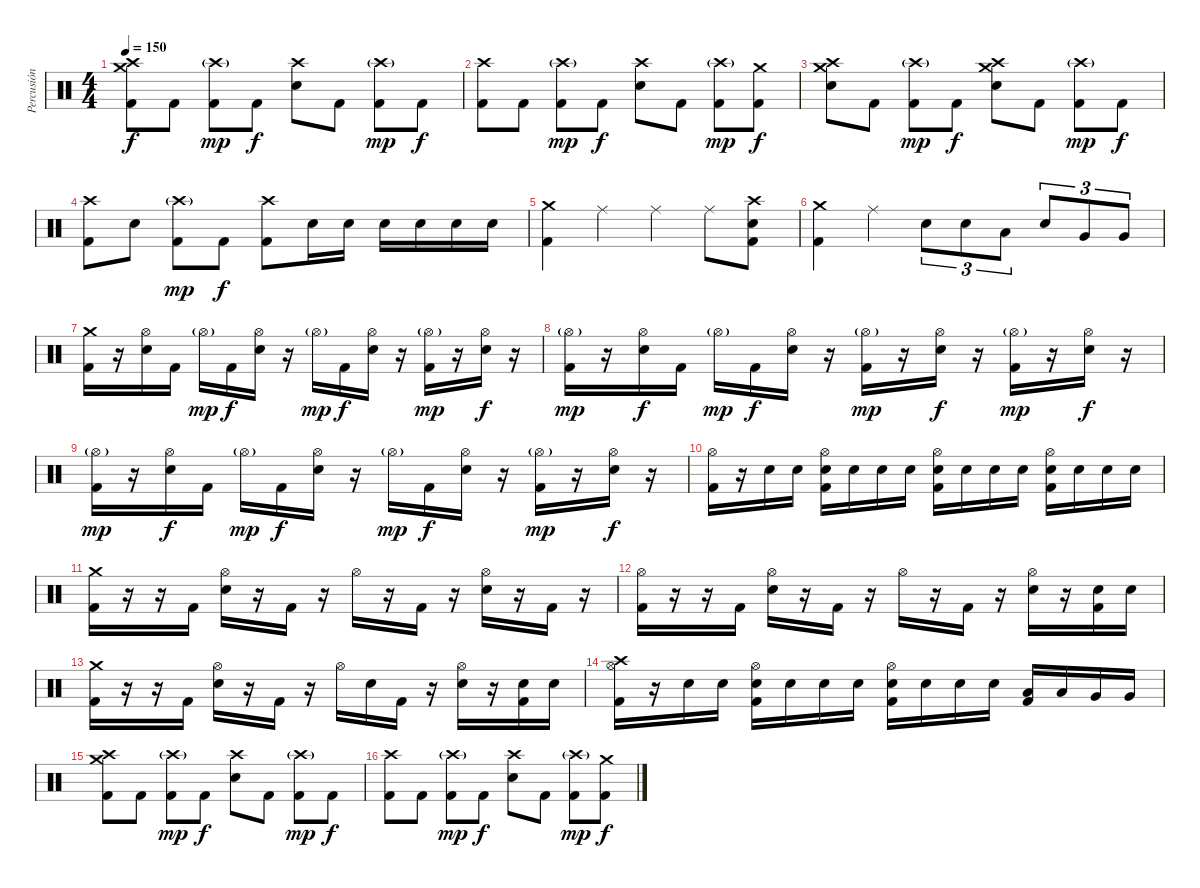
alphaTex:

\track ("Percusión" "Percusión") {instrument percussion}
\staff {score}
\articulation defaults
\ts (4 4)
\tempo 150
\clef neutral
\ks c
("Crash medium (hit)" "Crash high (hit)" "Kick (hit) 2").8{dy f} "Kick (hit) 2".8 ("Crash high (hit)"{g} "Kick (hit) 2").8{dy mp} "Kick (hit) 2".8{dy f} ("Crash high (hit)" "Electric Snare (hit)").8 "Kick (hit) 2".8 ("Crash high (hit)"{g} "Kick (hit) 2").8{dy mp} "Kick (hit) 2".8{dy f} |
("Crash high (hit)" "Kick (hit) 2").8 "Kick (hit) 2".8 ("Crash high (hit)"{g} "Kick (hit) 2").8{dy mp} "Kick (hit) 2".8{dy f} ("Crash high (hit)" "Electric Snare (hit)").8 "Kick (hit) 2".8 ("Crash high (hit)"{g} "Kick (hit) 2").8{dy mp} ("Crash medium (hit)" "Kick (hit) 2").8{dy f} |
("Crash medium (hit)" "Crash high (hit)" "Electric Snare (hit)").8 "Kick (hit) 2".8 ("Crash high (hit)"{g} "Kick (hit) 2").8{dy mp} "Kick (hit) 2".8{dy f} ("Crash medium (hit)" "Crash high (hit)" "Electric Snare (hit)").8 "Kick (hit) 2".8 ("Crash high (hit)"{g} "Kick (hit) 2").8{dy mp} "Kick (hit) 2".8{dy f} |
("Crash high (hit)" "Kick (hit) 2").8 "Electric Snare (hit)".8 ("Crash high (hit)"{g} "Kick (hit) 2").8{dy mp} "Kick (hit) 2".8{dy f} ("Crash high (hit)" "Kick (hit) 2").8 "Electric Snare (hit)".16 "Electric Snare (hit)".16 "Electric Snare (hit)".16 "Electric Snare (hit)".16 "Electric Snare (hit)".16 "Electric Snare (hit)".16 |
("Crash medium (hit)" "Kick (hit) 2").4 "Ride (middle)".4 "Ride (middle)".4 "Ride (middle)".8 ("Crash high (hit)" "Electric Snare (hit)" "Kick (hit) 2").8 |
("Crash medium (hit)" "Kick (hit) 2").4 "Ride (middle)".4 "Electric Snare (hit)".8{tu (3 2)} "Electric Snare (hit)".8{tu (3 2)} "Low Tom (hit)".8{tu (3 2)} "Electric Snare (hit)".8{tu (3 2)} "Very Low Tom (hit)".8{tu (3 2)} "Very Low Tom (hit)".8{tu (3 2)} |
("Crash medium (hit)" "Kick (hit) 2").16 r.16 ("Hi-Hat (open)" "Electric Snare (hit)").16 "Kick (hit) 2".16 "Hi-Hat (open)"{g}.16{dy mp} "Kick (hit) 2".16{dy f} ("Hi-Hat (open)" "Electric Snare (hit)").16 r.16 "Hi-Hat (open)"{g}.16{dy mp} "Kick (hit) 2".16{dy f} ("Hi-Hat (open)" "Electric Snare (hit)").16 r.16 ("Hi-Hat (open)"{g} "Kick (hit) 2").16{dy mp} r.16 ("Hi-Hat (open)" "Electric Snare (hit)").16{dy f} r.16 |
("Hi-Hat (open)"{g} "Kick (hit) 2").16{dy mp} r.16 ("Hi-Hat (open)" "Electric Snare (hit)").16{dy f} "Kick (hit) 2".16 "Hi-Hat (open)"{g}.16{dy mp} "Kick (hit) 2".16{dy f} ("Hi-Hat (open)" "Electric Snare (hit)").16 r.16 ("Hi-Hat (open)"{g} "Kick (hit) 2").16{dy mp} r.16 ("Hi-Hat (open)" "Electric Snare (hit)").16{dy f} r.16 ("Hi-Hat (open)"{g} "Kick (hit) 2").16{dy mp} r.16 ("Hi-Hat (open)" "Electric Snare (hit)").16{dy f} r.16 |
("Hi-Hat (open)"{g} "Kick (hit) 2").16{dy mp} r.16 ("Hi-Hat (open)" "Electric Snare (hit)").16{dy f} "Kick (hit) 2".16 "Hi-Hat (open)"{g}.16{dy mp} "Kick (hit) 2".16{dy f} ("Hi-Hat (open)" "Electric Snare (hit)").16 r.16 "Hi-Hat (open)"{g}.16{dy mp} "Kick (hit) 2".16{dy f} ("Hi-Hat (open)" "Electric Snare (hit)").16 r.16 ("Hi-Hat (open)"{g} "Kick (hit) 2").16{dy mp} r.16 ("Hi-Hat (open)" "Electric Snare (hit)").16{dy f} r.16 |
("Hi-Hat (open)" "Kick (hit) 2").16 r.16 "Electric Snare (hit)".16 "Electric Snare (hit)".16 ("Hi-Hat (open)" "Electric Snare (hit)" "Kick (hit) 2").16 "Electric Snare (hit)".16 "Electric Snare (hit)".16 "Electric Snare (hit)".16 ("Hi-Hat (open)" "Electric Snare (hit)" "Kick (hit) 2").16 "Electric Snare (hit)".16 "Electric Snare (hit)".16 "Electric Snare (hit)".16 ("Hi-Hat (open)" "Electric Snare (hit)" "Kick (hit) 2").16 "Electric Snare (hit)".16 "Electric Snare (hit)".16 "Electric Snare (hit)".16 |
("Crash medium (hit)" "Kick (hit) 2").16 r.16 r.16 "Kick (hit) 2".16 ("Hi-Hat (open)" "Electric Snare (hit)").16 r.16 "Kick (hit) 2".16 r.16 "Hi-Hat (open)".16 r.16 "Kick (hit) 2".16 r.16 ("Hi-Hat (open)" "Electric Snare (hit)").16 r.16 "Kick (hit) 2".16 r.16 |
("Hi-Hat (open)" "Kick (hit) 2").16 r.16 r.16 "Kick (hit) 2".16 ("Hi-Hat (open)" "Electric Snare (hit)").16 r.16 "Kick (hit) 2".16 r.16 "Hi-Hat (open)".16 r.16 "Kick (hit) 2".16 r.16 ("Hi-Hat (open)" "Electric Snare (hit)").16 r.16 ("Electric Snare (hit)" "Kick (hit) 2").16 "Electric Snare (hit)".16 |
("Crash medium (hit)" "Kick (hit) 2").16 r.16 r.16 "Kick (hit) 2".16 ("Hi-Hat (open)" "Electric Snare (hit)").16 r.16 "Kick (hit) 2".16 r.16 "Hi-Hat (open)".16 "Electric Snare (hit)".16 "Kick (hit) 2".16 r.16 ("Hi-Hat (open)" "Electric Snare (hit)").16 r.16 ("Electric Snare (hit)" "Kick (hit) 2").16 "Electric Snare (hit)".16 |
("Crash high (hit)" "Hi-Hat (open)" "Kick (hit) 2").16 r.16 "Electric Snare (hit)".16 "Electric Snare (hit)".16 ("Hi-Hat (open)" "Electric Snare (hit)" "Kick (hit) 2").16 "Electric Snare (hit)".16 "Electric Snare (hit)".16 "Electric Snare (hit)".16 ("Hi-Hat (open)" "Electric Snare (hit)" "Kick (hit) 2").16 "Electric Snare (hit)".16 "Electric Snare (hit)".16 "Electric Snare (hit)".16 ("Low Tom (hit)" "Kick (hit) 2").16 "Low Tom (hit)".16 "Very Low Tom (hit)".16 "Very Low Tom (hit)".16 |
("Crash medium (hit)" "Crash high (hit)" "Kick (hit) 2").8 "Kick (hit) 2".8 ("Crash high (hit)"{g} "Kick (hit) 2").8{dy mp} "Kick (hit) 2".8{dy f} ("Crash high (hit)" "Electric Snare (hit)").8 "Kick (hit) 2".8 ("Crash high (hit)"{g} "Kick (hit) 2").8{dy mp} "Kick (hit) 2".8{dy f} |
("Crash high (hit)" "Kick (hit) 2").8 "Kick (hit) 2".8 ("Crash high (hit)"{g} "Kick (hit) 2").8{dy mp} "Kick (hit) 2".8{dy f} ("Crash high (hit)" "Electric Snare (hit)").8 "Kick (hit) 2".8 ("Crash high (hit)"{g} "Kick (hit) 2").8{dy mp} ("Crash medium (hit)" "Kick (hit) 2").8{dy f}
